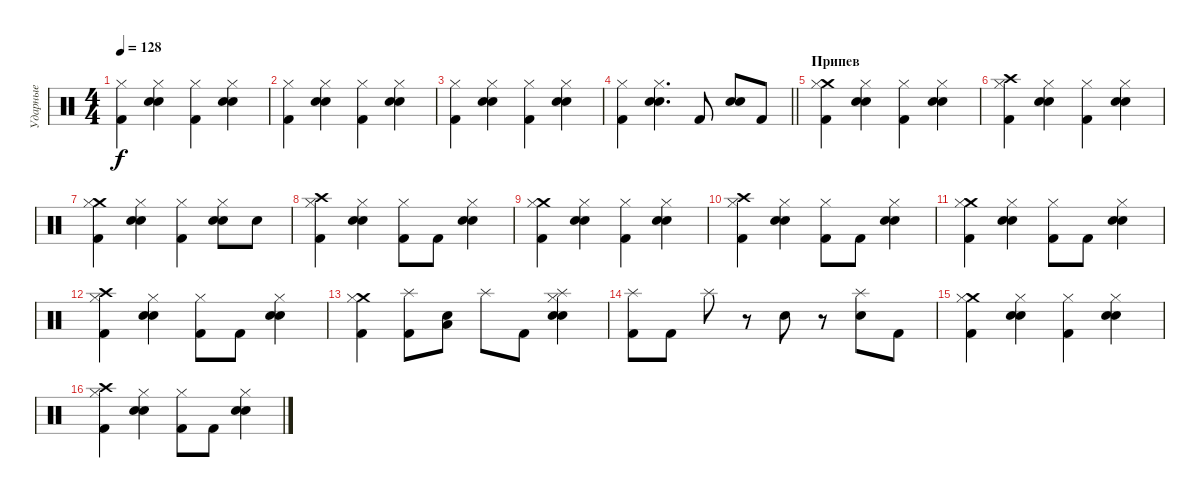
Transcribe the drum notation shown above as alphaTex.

\track ("Ударные" "Ударные") {instrument percussion}
\staff {score}
\articulation defaults
\ts (4 4)
\tempo 128
\clef neutral
\ks c
("Hi-Hat (closed)" "Kick (hit) 2").4{dy f} ("Electric Snare (hit)" "Snare (hit) 2" "Hi-Hat (closed)").4 ("Hi-Hat (closed)" "Kick (hit) 2").4 ("Electric Snare (hit)" "Snare (hit) 2" "Hi-Hat (closed)").4 |
("Hi-Hat (closed)" "Kick (hit) 2").4 ("Electric Snare (hit)" "Snare (hit) 2" "Hi-Hat (closed)").4 ("Hi-Hat (closed)" "Kick (hit) 2").4 ("Electric Snare (hit)" "Snare (hit) 2" "Hi-Hat (closed)").4 |
("Hi-Hat (closed)" "Kick (hit) 2").4 ("Electric Snare (hit)" "Snare (hit) 2" "Hi-Hat (closed)").4 ("Hi-Hat (closed)" "Kick (hit) 2").4 ("Electric Snare (hit)" "Snare (hit) 2" "Hi-Hat (closed)").4 |
\barLineRight lightlight
("Hi-Hat (closed)" "Kick (hit) 2").4 ("Electric Snare (hit)" "Snare (hit) 2" "Hi-Hat (closed)").4{d} "Kick (hit) 2".8 ("Electric Snare (hit)" "Snare (hit) 2").8 "Kick (hit) 2".8 |
\section ("" "Припев")
("Crash medium (hit)" "Hi-Hat (closed)" "Kick (hit) 2").4 ("Electric Snare (hit)" "Snare (hit) 2" "Hi-Hat (closed)").4 ("Hi-Hat (closed)" "Kick (hit) 2").4 ("Electric Snare (hit)" "Snare (hit) 2" "Hi-Hat (closed)").4 |
("Crash high (hit)" "Hi-Hat (closed)" "Kick (hit) 2").4 ("Electric Snare (hit)" "Snare (hit) 2" "Hi-Hat (closed)").4 ("Hi-Hat (closed)" "Kick (hit) 2").4 ("Electric Snare (hit)" "Snare (hit) 2" "Hi-Hat (closed)").4 |
("Crash medium (hit)" "Hi-Hat (closed)" "Kick (hit) 2").4 ("Electric Snare (hit)" "Snare (hit) 2" "Hi-Hat (closed)").4 ("Hi-Hat (closed)" "Kick (hit) 2").4 ("Electric Snare (hit)" "Snare (hit) 2" "Hi-Hat (closed)").8 "Electric Snare (hit)".8 |
("Crash high (hit)" "Hi-Hat (closed)" "Kick (hit) 2").4 ("Electric Snare (hit)" "Snare (hit) 2" "Hi-Hat (closed)").4 ("Hi-Hat (closed)" "Kick (hit) 2").8 "Kick (hit) 2".8 ("Electric Snare (hit)" "Snare (hit) 2" "Hi-Hat (closed)").4 |
("Crash medium (hit)" "Hi-Hat (closed)" "Kick (hit) 2").4 ("Electric Snare (hit)" "Snare (hit) 2" "Hi-Hat (closed)").4 ("Hi-Hat (closed)" "Kick (hit) 2").4 ("Electric Snare (hit)" "Snare (hit) 2" "Hi-Hat (closed)").4 |
("Crash high (hit)" "Hi-Hat (closed)" "Kick (hit) 2").4 ("Electric Snare (hit)" "Snare (hit) 2" "Hi-Hat (closed)").4 ("Hi-Hat (closed)" "Kick (hit) 2").8 "Kick (hit) 2".8 ("Electric Snare (hit)" "Snare (hit) 2" "Hi-Hat (closed)").4 |
("Crash medium (hit)" "Hi-Hat (closed)" "Kick (hit) 2").4 ("Electric Snare (hit)" "Snare (hit) 2" "Hi-Hat (closed)").4 ("Hi-Hat (closed)" "Kick (hit) 2").8 "Kick (hit) 2".8 ("Electric Snare (hit)" "Snare (hit) 2" "Hi-Hat (closed)").4 |
("Crash high (hit)" "Hi-Hat (closed)" "Kick (hit) 2").4 ("Electric Snare (hit)" "Snare (hit) 2" "Hi-Hat (closed)").4 ("Hi-Hat (closed)" "Kick (hit) 2").8 "Kick (hit) 2".8 ("Electric Snare (hit)" "Snare (hit) 2" "Hi-Hat (closed)").4 |
("Crash medium (hit)" "Hi-Hat (closed)" "Kick (hit) 2").4 ("Splash (hit)" "Kick (hit) 2").8 ("Snare (hit) 2" "Low Tom (hit)").8 "Splash (hit)".8 "Kick (hit) 2".8 ("Splash (hit)" "Electric Snare (hit)" "Snare (hit) 2" "Hi-Hat (closed)").4 |
("Splash (hit)" "Kick (hit) 2").8 "Kick (hit) 2".8 "Splash (hit)".8 r.8 "Electric Snare (hit)".8 r.8 ("Splash (hit)" "Electric Snare (hit)").8 "Kick (hit) 2".8 |
("Crash medium (hit)" "Hi-Hat (closed)" "Kick (hit) 2").4 ("Electric Snare (hit)" "Snare (hit) 2" "Hi-Hat (closed)").4 ("Hi-Hat (closed)" "Kick (hit) 2").4 ("Electric Snare (hit)" "Snare (hit) 2" "Hi-Hat (closed)").4 |
("Crash high (hit)" "Hi-Hat (closed)" "Kick (hit) 2").4 ("Electric Snare (hit)" "Snare (hit) 2" "Hi-Hat (closed)").4 ("Hi-Hat (closed)" "Kick (hit) 2").8 "Kick (hit) 2".8 ("Electric Snare (hit)" "Snare (hit) 2" "Hi-Hat (closed)").4
